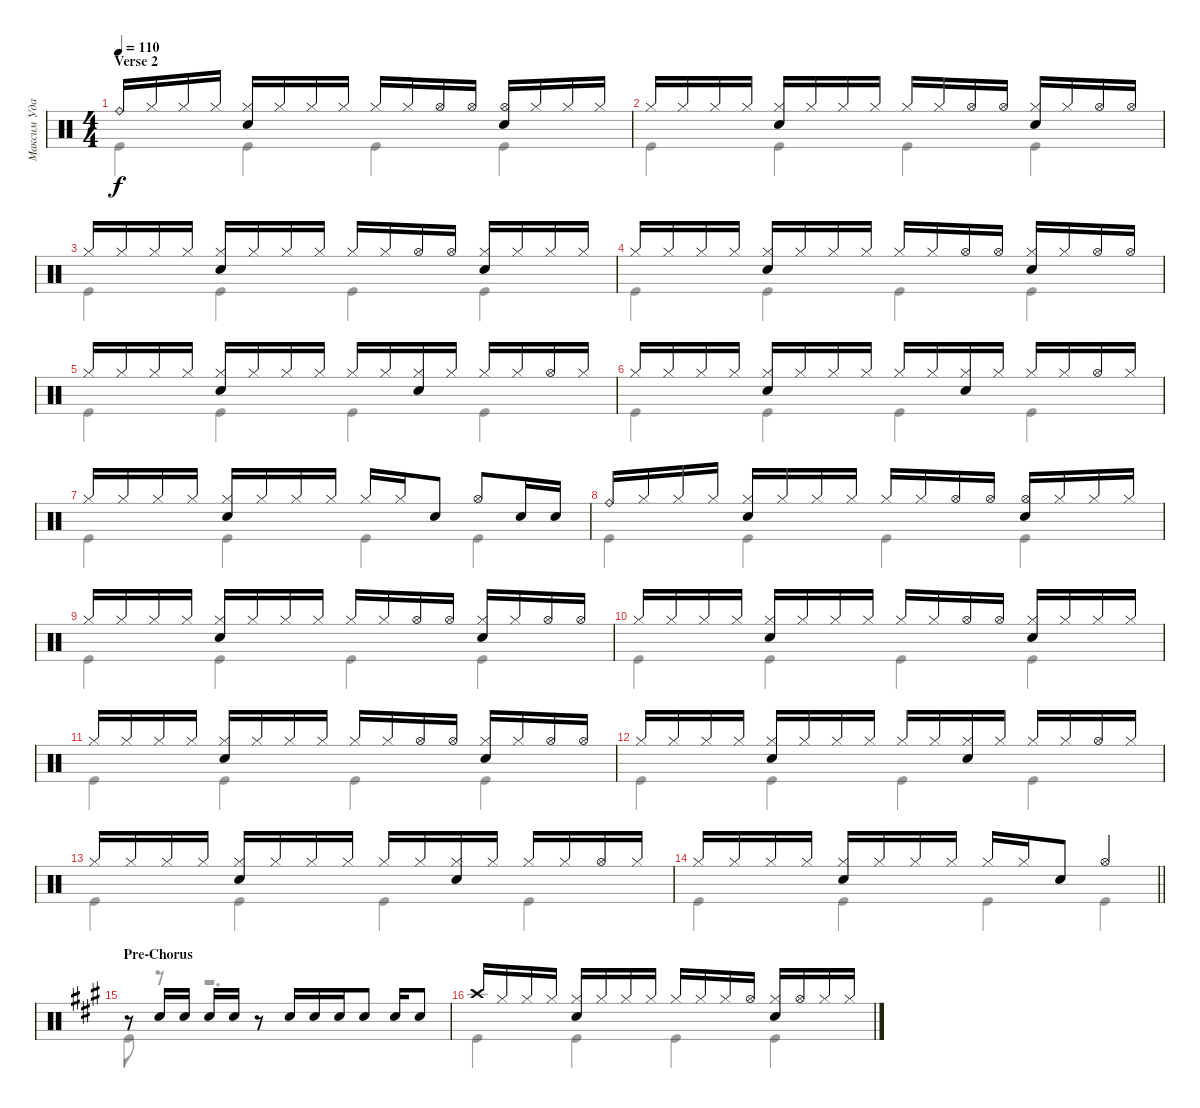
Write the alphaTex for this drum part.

\track ("Максим Удалов" "Максим Уда") {instrument percussion}
\staff {score}
\articulation defaults
\voice
\ts (4 4)
\section ("" "Verse 2")
\tempo 110
\clef neutral
\ks c "Ride (bell)".16{dy f} "Hi-Hat (closed)".16 "Hi-Hat (closed)".16 "Hi-Hat (closed)".16
("Hi-Hat (closed)" "Snare (hit) 2").16 "Hi-Hat (closed)".16 "Hi-Hat (closed)".16 "Hi-Hat (closed)".16 "Hi-Hat (closed)".16 "Hi-Hat (closed)".16 "Hi-Hat (open)".16 "Hi-Hat (open)".16 ("Hi-Hat (open)" "Snare (hit) 2").16 "Hi-Hat (closed)".16 "Hi-Hat (closed)".16 "Hi-Hat (closed)".16 |
"Hi-Hat (closed)".16 "Hi-Hat (closed)".16 "Hi-Hat (closed)".16 "Hi-Hat (closed)".16 ("Hi-Hat (closed)" "Snare (hit) 2").16 "Hi-Hat (closed)".16 "Hi-Hat (closed)".16 "Hi-Hat (closed)".16 "Hi-Hat (closed)".16 "Hi-Hat (closed)".16 "Hi-Hat (open)".16 "Hi-Hat (open)".16 ("Snare (hit) 2" "Hi-Hat (closed)").16 "Hi-Hat (closed)".16 "Hi-Hat (open)".16 "Hi-Hat (open)".16 |
"Hi-Hat (closed)".16 "Hi-Hat (closed)".16 "Hi-Hat (closed)".16 "Hi-Hat (closed)".16 ("Hi-Hat (closed)" "Snare (hit) 2").16 "Hi-Hat (closed)".16 "Hi-Hat (closed)".16 "Hi-Hat (closed)".16 "Hi-Hat (closed)".16 "Hi-Hat (closed)".16 "Hi-Hat (open)".16 "Hi-Hat (open)".16 ("Snare (hit) 2" "Hi-Hat (closed)").16 "Hi-Hat (closed)".16 "Hi-Hat (closed)".16 "Hi-Hat (closed)".16 |
"Hi-Hat (closed)".16 "Hi-Hat (closed)".16 "Hi-Hat (closed)".16 "Hi-Hat (closed)".16 ("Hi-Hat (closed)" "Snare (hit) 2").16 "Hi-Hat (closed)".16 "Hi-Hat (closed)".16 "Hi-Hat (closed)".16 "Hi-Hat (closed)".16 "Hi-Hat (closed)".16 "Hi-Hat (open)".16 "Hi-Hat (open)".16 ("Snare (hit) 2" "Hi-Hat (closed)").16 "Hi-Hat (closed)".16 "Hi-Hat (open)".16 "Hi-Hat (open)".16 |
"Hi-Hat (closed)".16 "Hi-Hat (closed)".16 "Hi-Hat (closed)".16 "Hi-Hat (closed)".16 ("Hi-Hat (closed)" "Snare (hit) 2").16 "Hi-Hat (closed)".16 "Hi-Hat (closed)".16 "Hi-Hat (closed)".16 "Hi-Hat (closed)".16 "Hi-Hat (closed)".16 ("Hi-Hat (closed)" "Snare (hit) 2").16 "Hi-Hat (closed)".16 "Hi-Hat (closed)".16 "Hi-Hat (closed)".16 "Hi-Hat (open)".16 "Hi-Hat (closed)".16 |
"Hi-Hat (closed)".16 "Hi-Hat (closed)".16 "Hi-Hat (closed)".16 "Hi-Hat (closed)".16 ("Hi-Hat (closed)" "Snare (hit) 2").16 "Hi-Hat (closed)".16 "Hi-Hat (closed)".16 "Hi-Hat (closed)".16 "Hi-Hat (closed)".16 "Hi-Hat (closed)".16 ("Hi-Hat (closed)" "Snare (hit) 2").16 "Hi-Hat (closed)".16 "Hi-Hat (closed)".16 "Hi-Hat (closed)".16 "Hi-Hat (open)".16 "Hi-Hat (closed)".16 |
"Hi-Hat (closed)".16 "Hi-Hat (closed)".16 "Hi-Hat (closed)".16 "Hi-Hat (closed)".16 ("Hi-Hat (closed)" "Snare (hit) 2").16 "Hi-Hat (closed)".16 "Hi-Hat (closed)".16 "Hi-Hat (closed)".16 "Hi-Hat (closed)".16 "Hi-Hat (closed)".16 "Snare (hit) 2".8 "Hi-Hat (open)".8 "Snare (hit) 2".16 "Snare (hit) 2".16 |
"Ride (bell)".16 "Hi-Hat (closed)".16 "Hi-Hat (closed)".16 "Hi-Hat (closed)".16 ("Hi-Hat (closed)" "Snare (hit) 2").16 "Hi-Hat (closed)".16 "Hi-Hat (closed)".16 "Hi-Hat (closed)".16 "Hi-Hat (closed)".16 "Hi-Hat (closed)".16 "Hi-Hat (open)".16 "Hi-Hat (open)".16 ("Hi-Hat (open)" "Snare (hit) 2").16 "Hi-Hat (closed)".16 "Hi-Hat (closed)".16 "Hi-Hat (closed)".16 |
"Hi-Hat (closed)".16 "Hi-Hat (closed)".16 "Hi-Hat (closed)".16 "Hi-Hat (closed)".16 ("Hi-Hat (closed)" "Snare (hit) 2").16 "Hi-Hat (closed)".16 "Hi-Hat (closed)".16 "Hi-Hat (closed)".16 "Hi-Hat (closed)".16 "Hi-Hat (closed)".16 "Hi-Hat (open)".16 "Hi-Hat (open)".16 ("Snare (hit) 2" "Hi-Hat (closed)").16 "Hi-Hat (closed)".16 "Hi-Hat (open)".16 "Hi-Hat (open)".16 |
"Hi-Hat (closed)".16 "Hi-Hat (closed)".16 "Hi-Hat (closed)".16 "Hi-Hat (closed)".16 ("Hi-Hat (closed)" "Snare (hit) 2").16 "Hi-Hat (closed)".16 "Hi-Hat (closed)".16 "Hi-Hat (closed)".16 "Hi-Hat (closed)".16 "Hi-Hat (closed)".16 "Hi-Hat (open)".16 "Hi-Hat (open)".16 ("Snare (hit) 2" "Hi-Hat (closed)").16 "Hi-Hat (closed)".16 "Hi-Hat (closed)".16 "Hi-Hat (closed)".16 |
"Hi-Hat (closed)".16 "Hi-Hat (closed)".16 "Hi-Hat (closed)".16 "Hi-Hat (closed)".16 ("Hi-Hat (closed)" "Snare (hit) 2").16 "Hi-Hat (closed)".16 "Hi-Hat (closed)".16 "Hi-Hat (closed)".16 "Hi-Hat (closed)".16 "Hi-Hat (closed)".16 "Hi-Hat (open)".16 "Hi-Hat (open)".16 ("Snare (hit) 2" "Hi-Hat (closed)").16 "Hi-Hat (closed)".16 "Hi-Hat (open)".16 "Hi-Hat (open)".16 |
"Hi-Hat (closed)".16 "Hi-Hat (closed)".16 "Hi-Hat (closed)".16 "Hi-Hat (closed)".16 ("Hi-Hat (closed)" "Snare (hit) 2").16 "Hi-Hat (closed)".16 "Hi-Hat (closed)".16 "Hi-Hat (closed)".16 "Hi-Hat (closed)".16 "Hi-Hat (closed)".16 ("Hi-Hat (closed)" "Snare (hit) 2").16 "Hi-Hat (closed)".16 "Hi-Hat (closed)".16 "Hi-Hat (closed)".16 "Hi-Hat (open)".16 "Hi-Hat (closed)".16 |
"Hi-Hat (closed)".16 "Hi-Hat (closed)".16 "Hi-Hat (closed)".16 "Hi-Hat (closed)".16 ("Hi-Hat (closed)" "Snare (hit) 2").16 "Hi-Hat (closed)".16 "Hi-Hat (closed)".16 "Hi-Hat (closed)".16 "Hi-Hat (closed)".16 "Hi-Hat (closed)".16 ("Hi-Hat (closed)" "Snare (hit) 2").16 "Hi-Hat (closed)".16 "Hi-Hat (closed)".16 "Hi-Hat (closed)".16 "Hi-Hat (open)".16 "Hi-Hat (closed)".16 |
\barLineRight lightlight "Hi-Hat (closed)".16 "Hi-Hat (closed)".16 "Hi-Hat (closed)".16 "Hi-Hat (closed)".16
("Hi-Hat (closed)" "Snare (hit) 2").16 "Hi-Hat (closed)".16 "Hi-Hat (closed)".16 "Hi-Hat (closed)".16 "Hi-Hat (closed)".16 "Hi-Hat (closed)".16 "Snare (hit) 2".8 "Hi-Hat (open)".4 |
\section ("" "Pre-Chorus")
\ks a
r.8 "Snare (hit) 2".16 "Snare (hit) 2".16 "Snare (hit) 2".16 "Snare (hit) 2".16 r.8 "Snare (hit) 2".16 "Snare (hit) 2".16 "Snare (hit) 2".16 "Snare (hit) 2".8 "Snare (hit) 2".16 "Snare (hit) 2".8 |
"Crash high (hit)".16 "Hi-Hat (closed)".16 "Hi-Hat (closed)".16 "Hi-Hat (closed)".16 ("Hi-Hat (closed)" "Snare (hit) 2").16 "Hi-Hat (closed)".16 "Hi-Hat (closed)".16 "Hi-Hat (closed)".16 "Hi-Hat (closed)".16 "Hi-Hat (closed)".16 "Hi-Hat (closed)".16 "Hi-Hat (open)".16 ("Hi-Hat (closed)" "Snare (hit) 2").16 "Hi-Hat (open)".16 "Hi-Hat (closed)".16 "Hi-Hat (closed)".16
\voice
\clef neutral
\ottava regular
\simile none
\ks c "Kick (hit)".4{dy f} "Kick (hit)".4 "Kick (hit)".4 "Kick (hit)".4
|
"Kick (hit)".4 "Kick (hit)".4 "Kick (hit)".4 "Kick (hit)".4 |
"Kick (hit)".4 "Kick (hit)".4 "Kick (hit)".4 "Kick (hit)".4 |
"Kick (hit)".4 "Kick (hit)".4 "Kick (hit)".4 "Kick (hit)".4 |
"Kick (hit)".4 "Kick (hit)".4 "Kick (hit)".4 "Kick (hit)".4 |
"Kick (hit)".4 "Kick (hit)".4 "Kick (hit)".4 "Kick (hit)".4 |
"Kick (hit)".4 "Kick (hit)".4 "Kick (hit)".4 "Kick (hit)".4 |
"Kick (hit)".4 "Kick (hit)".4 "Kick (hit)".4 "Kick (hit)".4 |
"Kick (hit)".4 "Kick (hit)".4 "Kick (hit)".4 "Kick (hit)".4 |
"Kick (hit)".4 "Kick (hit)".4 "Kick (hit)".4 "Kick (hit)".4 |
"Kick (hit)".4 "Kick (hit)".4 "Kick (hit)".4 "Kick (hit)".4 |
"Kick (hit)".4 "Kick (hit)".4 "Kick (hit)".4 "Kick (hit)".4 |
"Kick (hit)".4 "Kick (hit)".4 "Kick (hit)".4 "Kick (hit)".4 |
\barLineRight lightlight "Kick (hit)".4 "Kick (hit)".4 "Kick (hit)".4 "Kick (hit)".4
|
\ks a "Kick (hit)".8
r.8 r.2{d} |
"Kick (hit)".4 "Kick (hit)".4 "Kick (hit)".4 "Kick (hit)".4
